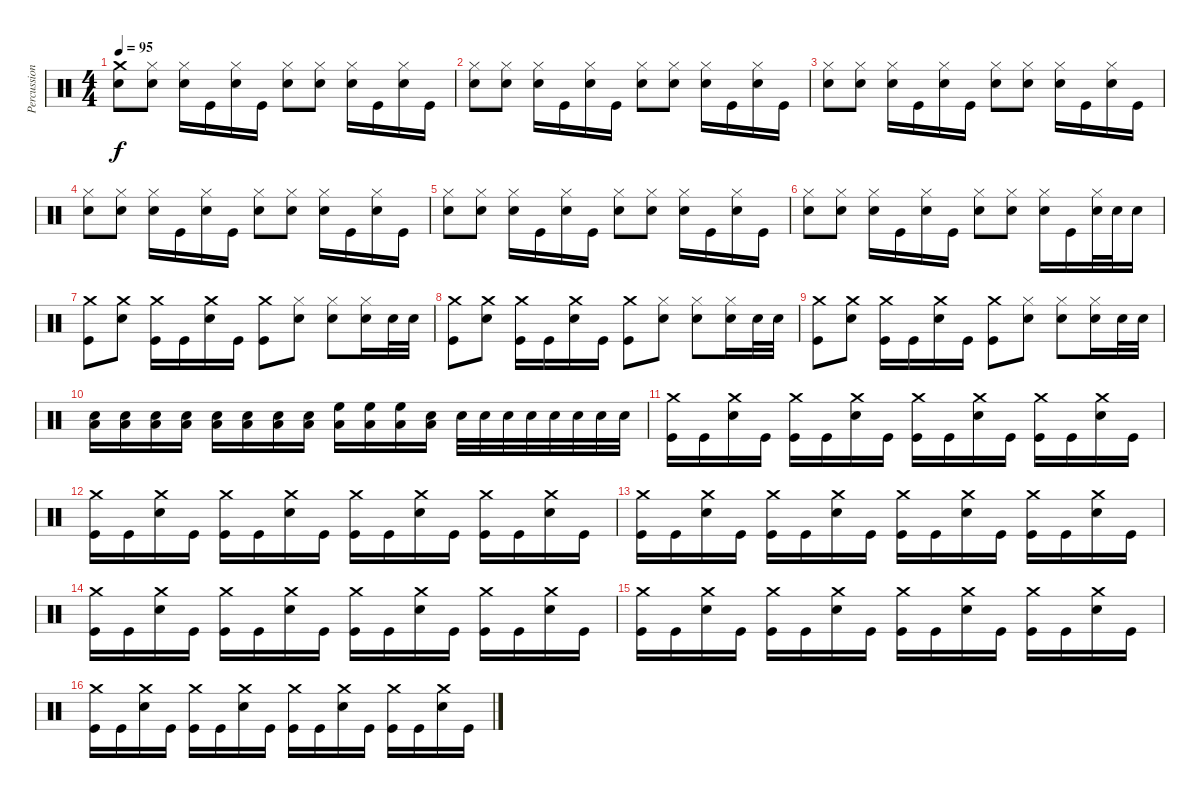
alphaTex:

\track ("Percussion" "Percussion") {instrument percussion}
\staff {score}
\articulation defaults
\ts (4 4)
\tempo 95
\clef neutral
\ks c
("Crash medium (hit)" "Electric Snare (hit)").8{dy f} ("Hi-Hat (closed)" "Electric Snare (hit)").8 ("Hi-Hat (closed)" "Electric Snare (hit)").16 "Kick (hit)".16 ("Hi-Hat (closed)" "Electric Snare (hit)").16 "Kick (hit)".16 ("Hi-Hat (closed)" "Electric Snare (hit)").8 ("Hi-Hat (closed)" "Electric Snare (hit)").8 ("Hi-Hat (closed)" "Electric Snare (hit)").16 "Kick (hit)".16 ("Hi-Hat (closed)" "Electric Snare (hit)").16 "Kick (hit)".16 |
("Hi-Hat (closed)" "Electric Snare (hit)").8 ("Hi-Hat (closed)" "Electric Snare (hit)").8 ("Hi-Hat (closed)" "Electric Snare (hit)").16 "Kick (hit)".16 ("Hi-Hat (closed)" "Electric Snare (hit)").16 "Kick (hit)".16 ("Hi-Hat (closed)" "Electric Snare (hit)").8 ("Hi-Hat (closed)" "Electric Snare (hit)").8 ("Hi-Hat (closed)" "Electric Snare (hit)").16 "Kick (hit)".16 ("Hi-Hat (closed)" "Electric Snare (hit)").16 "Kick (hit)".16 |
("Hi-Hat (closed)" "Electric Snare (hit)").8 ("Hi-Hat (closed)" "Electric Snare (hit)").8 ("Hi-Hat (closed)" "Electric Snare (hit)").16 "Kick (hit)".16 ("Hi-Hat (closed)" "Electric Snare (hit)").16 "Kick (hit)".16 ("Hi-Hat (closed)" "Electric Snare (hit)").8 ("Hi-Hat (closed)" "Electric Snare (hit)").8 ("Hi-Hat (closed)" "Electric Snare (hit)").16 "Kick (hit)".16 ("Hi-Hat (closed)" "Electric Snare (hit)").16 "Kick (hit)".16 |
("Hi-Hat (closed)" "Electric Snare (hit)").8 ("Hi-Hat (closed)" "Electric Snare (hit)").8 ("Hi-Hat (closed)" "Electric Snare (hit)").16 "Kick (hit)".16 ("Hi-Hat (closed)" "Electric Snare (hit)").16 "Kick (hit)".16 ("Hi-Hat (closed)" "Electric Snare (hit)").8 ("Hi-Hat (closed)" "Electric Snare (hit)").8 ("Hi-Hat (closed)" "Electric Snare (hit)").16 "Kick (hit)".16 ("Hi-Hat (closed)" "Electric Snare (hit)").16 "Kick (hit)".16 |
("Hi-Hat (closed)" "Electric Snare (hit)").8 ("Hi-Hat (closed)" "Electric Snare (hit)").8 ("Hi-Hat (closed)" "Electric Snare (hit)").16 "Kick (hit)".16 ("Hi-Hat (closed)" "Electric Snare (hit)").16 "Kick (hit)".16 ("Hi-Hat (closed)" "Electric Snare (hit)").8 ("Hi-Hat (closed)" "Electric Snare (hit)").8 ("Hi-Hat (closed)" "Electric Snare (hit)").16 "Kick (hit)".16 ("Hi-Hat (closed)" "Electric Snare (hit)").16 "Kick (hit)".16 |
("Hi-Hat (closed)" "Electric Snare (hit)").8 ("Hi-Hat (closed)" "Electric Snare (hit)").8 ("Hi-Hat (closed)" "Electric Snare (hit)").16 "Kick (hit)".16 ("Hi-Hat (closed)" "Electric Snare (hit)").16 "Kick (hit)".16 ("Hi-Hat (closed)" "Electric Snare (hit)").8 ("Hi-Hat (closed)" "Electric Snare (hit)").8 ("Hi-Hat (closed)" "Electric Snare (hit)").16 "Kick (hit)".16 ("Hi-Hat (closed)" "Electric Snare (hit)").32 "Electric Snare (hit)".32 "Electric Snare (hit)".16 |
("Crash medium (hit)" "Kick (hit)").8 ("Crash medium (hit)" "Electric Snare (hit)").8 ("Crash medium (hit)" "Kick (hit)").16 "Kick (hit)".16 ("Crash medium (hit)" "Electric Snare (hit)").16 "Kick (hit)".16 ("Crash medium (hit)" "Kick (hit)").8 ("Hi-Hat (closed)" "Electric Snare (hit)").8 ("Hi-Hat (closed)" "Electric Snare (hit)").8 ("Hi-Hat (closed)" "Electric Snare (hit)").16 "Electric Snare (hit)".32 "Electric Snare (hit)".32 |
("Crash medium (hit)" "Kick (hit)").8 ("Crash medium (hit)" "Electric Snare (hit)").8 ("Crash medium (hit)" "Kick (hit)").16 "Kick (hit)".16 ("Crash medium (hit)" "Electric Snare (hit)").16 "Kick (hit)".16 ("Crash medium (hit)" "Kick (hit)").8 ("Hi-Hat (closed)" "Electric Snare (hit)").8 ("Hi-Hat (closed)" "Electric Snare (hit)").8 ("Hi-Hat (closed)" "Electric Snare (hit)").16 "Electric Snare (hit)".32 "Electric Snare (hit)".32 |
("Crash medium (hit)" "Kick (hit)").8 ("Crash medium (hit)" "Electric Snare (hit)").8 ("Crash medium (hit)" "Kick (hit)").16 "Kick (hit)".16 ("Crash medium (hit)" "Electric Snare (hit)").16 "Kick (hit)".16 ("Crash medium (hit)" "Kick (hit)").8 ("Hi-Hat (closed)" "Electric Snare (hit)").8 ("Hi-Hat (closed)" "Electric Snare (hit)").8 ("Hi-Hat (closed)" "Electric Snare (hit)").16 "Electric Snare (hit)".32 "Electric Snare (hit)".32 |
("Low Floor Tom (hit)" "Electric Snare (hit)").16 ("Low Floor Tom (hit)" "Electric Snare (hit)").16 ("Low Floor Tom (hit)" "Electric Snare (hit)").16 ("Low Floor Tom (hit)" "Electric Snare (hit)").16 ("Low Floor Tom (hit)" "Electric Snare (hit)").16 ("Low Floor Tom (hit)" "Electric Snare (hit)").16 ("Low Floor Tom (hit)" "Electric Snare (hit)").16 ("Low Floor Tom (hit)" "Electric Snare (hit)").16 ("Low Floor Tom (hit)" "High Floor Tom (hit)").16 ("Low Floor Tom (hit)" "High Floor Tom (hit)").16 ("Low Floor Tom (hit)" "High Floor Tom (hit)").16 ("Low Floor Tom (hit)" "Electric Snare (hit)").16 "Electric Snare (hit)".32 "Electric Snare (hit)".32 "Electric Snare (hit)".32 "Electric Snare (hit)".32 "Electric Snare (hit)".32 "Electric Snare (hit)".32 "Electric Snare (hit)".32 "Electric Snare (hit)".32 |
("Crash medium (hit)" "Kick (hit)").16 "Kick (hit)".16 ("Crash medium (hit)" "Electric Snare (hit)").16 "Kick (hit)".16 ("Crash medium (hit)" "Kick (hit)").16 "Kick (hit)".16 ("Crash medium (hit)" "Electric Snare (hit)").16 "Kick (hit)".16 ("Crash medium (hit)" "Kick (hit)").16 "Kick (hit)".16 ("Crash medium (hit)" "Electric Snare (hit)").16 "Kick (hit)".16 ("Crash medium (hit)" "Kick (hit)").16 "Kick (hit)".16 ("Crash medium (hit)" "Electric Snare (hit)").16 "Kick (hit)".16 |
("Crash medium (hit)" "Kick (hit)").16 "Kick (hit)".16 ("Crash medium (hit)" "Electric Snare (hit)").16 "Kick (hit)".16 ("Crash medium (hit)" "Kick (hit)").16 "Kick (hit)".16 ("Crash medium (hit)" "Electric Snare (hit)").16 "Kick (hit)".16 ("Crash medium (hit)" "Kick (hit)").16 "Kick (hit)".16 ("Crash medium (hit)" "Electric Snare (hit)").16 "Kick (hit)".16 ("Crash medium (hit)" "Kick (hit)").16 "Kick (hit)".16 ("Crash medium (hit)" "Electric Snare (hit)").16 "Kick (hit)".16 |
("Crash medium (hit)" "Kick (hit)").16 "Kick (hit)".16 ("Crash medium (hit)" "Electric Snare (hit)").16 "Kick (hit)".16 ("Crash medium (hit)" "Kick (hit)").16 "Kick (hit)".16 ("Crash medium (hit)" "Electric Snare (hit)").16 "Kick (hit)".16 ("Crash medium (hit)" "Kick (hit)").16 "Kick (hit)".16 ("Crash medium (hit)" "Electric Snare (hit)").16 "Kick (hit)".16 ("Crash medium (hit)" "Kick (hit)").16 "Kick (hit)".16 ("Crash medium (hit)" "Electric Snare (hit)").16 "Kick (hit)".16 |
("Crash medium (hit)" "Kick (hit)").16 "Kick (hit)".16 ("Crash medium (hit)" "Electric Snare (hit)").16 "Kick (hit)".16 ("Crash medium (hit)" "Kick (hit)").16 "Kick (hit)".16 ("Crash medium (hit)" "Electric Snare (hit)").16 "Kick (hit)".16 ("Crash medium (hit)" "Kick (hit)").16 "Kick (hit)".16 ("Crash medium (hit)" "Electric Snare (hit)").16 "Kick (hit)".16 ("Crash medium (hit)" "Kick (hit)").16 "Kick (hit)".16 ("Crash medium (hit)" "Electric Snare (hit)").16 "Kick (hit)".16 |
("Crash medium (hit)" "Kick (hit)").16 "Kick (hit)".16 ("Crash medium (hit)" "Electric Snare (hit)").16 "Kick (hit)".16 ("Crash medium (hit)" "Kick (hit)").16 "Kick (hit)".16 ("Crash medium (hit)" "Electric Snare (hit)").16 "Kick (hit)".16 ("Crash medium (hit)" "Kick (hit)").16 "Kick (hit)".16 ("Crash medium (hit)" "Electric Snare (hit)").16 "Kick (hit)".16 ("Crash medium (hit)" "Kick (hit)").16 "Kick (hit)".16 ("Crash medium (hit)" "Electric Snare (hit)").16 "Kick (hit)".16 |
("Crash medium (hit)" "Kick (hit)").16 "Kick (hit)".16 ("Crash medium (hit)" "Electric Snare (hit)").16 "Kick (hit)".16 ("Crash medium (hit)" "Kick (hit)").16 "Kick (hit)".16 ("Crash medium (hit)" "Electric Snare (hit)").16 "Kick (hit)".16 ("Crash medium (hit)" "Kick (hit)").16 "Kick (hit)".16 ("Crash medium (hit)" "Electric Snare (hit)").16 "Kick (hit)".16 ("Crash medium (hit)" "Kick (hit)").16 "Kick (hit)".16 ("Crash medium (hit)" "Electric Snare (hit)").16 "Kick (hit)".16
